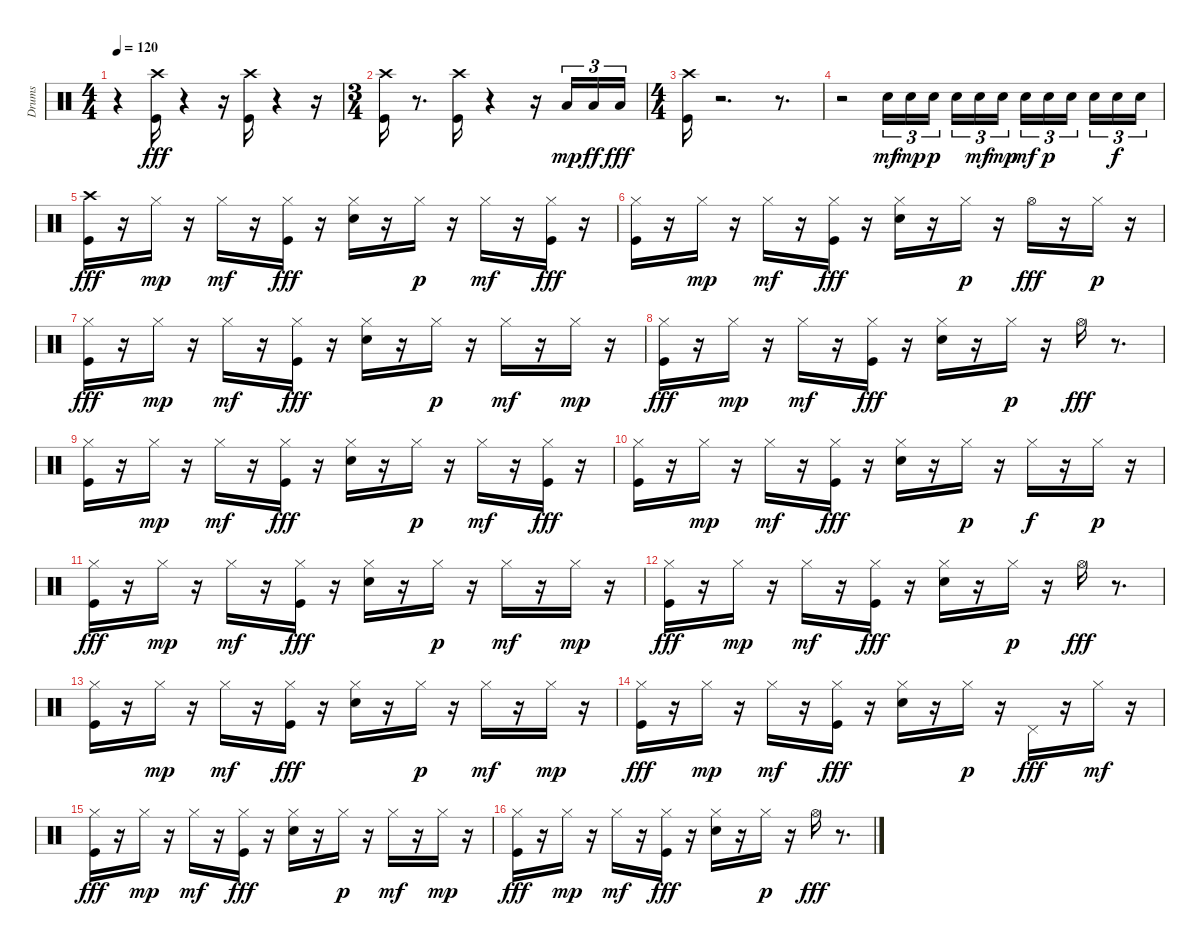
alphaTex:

\track ("Drums" "Drums") {instrument percussion}
\staff {score}
\articulation defaults
\ts (4 4)
\tempo 120
\clef neutral
\ks c
r.4{dy fff} ("Crash high (hit)" "Kick (hit)").16 r.4 r.16 ("Crash high (hit)" "Kick (hit)").16 r.4 r.16 |
\ts (3 4)
("Crash high (hit)" "Kick (hit)").16 r.8{d} ("Crash high (hit)" "Kick (hit)").16 r.4 r.16 "Low Tom (hit)".16{tu (3 2) dy mp} "Low Tom (hit)".16{tu (3 2) dy ff} "Low Tom (hit)".16{tu (3 2) dy fff} |
\ts (4 4)
("Crash high (hit)" "Kick (hit)").16 r.2{d} r.8{d} |
r.2 "Snare (hit) 2".16{tu (3 2) dy mf} "Snare (hit) 2".16{tu (3 2) dy mp} "Snare (hit) 2".16{tu (3 2) dy p beam splitsecondary} "Snare (hit) 2".16{tu (3 2)} "Snare (hit) 2".16{tu (3 2) dy mf} "Snare (hit) 2".16{tu (3 2) dy mp} "Snare (hit) 2".16{tu (3 2) dy mf} "Snare (hit) 2".16{tu (3 2) dy p} "Snare (hit) 2".16{tu (3 2) beam splitsecondary} "Snare (hit) 2".16{tu (3 2)} "Snare (hit) 2".16{tu (3 2) dy f} "Snare (hit) 2".16{tu (3 2)} |
("Kick (hit)" "Crash high (hit)").16{dy fff} r.16 "Hi-Hat (closed)".16{dy mp} r.16 "Hi-Hat (closed)".16{dy mf} r.16 ("Hi-Hat (closed)" "Kick (hit)").16{dy fff} r.16 ("Hi-Hat (closed)" "Snare (hit) 2").16 r.16 "Hi-Hat (closed)".16{dy p} r.16 "Hi-Hat (closed)".16{dy mf} r.16 ("Hi-Hat (closed)" "Kick (hit)").16{dy fff} r.16 |
("Hi-Hat (closed)" "Kick (hit)").16 r.16 "Hi-Hat (closed)".16{dy mp} r.16 "Hi-Hat (closed)".16{dy mf} r.16 ("Hi-Hat (closed)" "Kick (hit)").16{dy fff} r.16 ("Hi-Hat (closed)" "Snare (hit) 2").16 r.16 "Hi-Hat (closed)".16{dy p} r.16 "Hi-Hat (open)".16{dy fff} r.16 "Hi-Hat (closed)".16{dy p} r.16 |
("Hi-Hat (closed)" "Kick (hit)").16{dy fff} r.16 "Hi-Hat (closed)".16{dy mp} r.16 "Hi-Hat (closed)".16{dy mf} r.16 ("Hi-Hat (closed)" "Kick (hit)").16{dy fff} r.16 ("Hi-Hat (closed)" "Snare (hit) 2").16 r.16 "Hi-Hat (closed)".16{dy p} r.16 "Hi-Hat (closed)".16{dy mf} r.16 "Hi-Hat (closed)".16{dy mp} r.16 |
("Hi-Hat (closed)" "Kick (hit)").16{dy fff} r.16 "Hi-Hat (closed)".16{dy mp} r.16 "Hi-Hat (closed)".16{dy mf} r.16 ("Hi-Hat (closed)" "Kick (hit)").16{dy fff} r.16 ("Hi-Hat (closed)" "Snare (hit) 2").16 r.16 "Hi-Hat (closed)".16{dy p} r.16 "Hi-Hat (open)".16{dy fff} r.8{d} |
("Hi-Hat (closed)" "Kick (hit)").16 r.16 "Hi-Hat (closed)".16{dy mp} r.16 "Hi-Hat (closed)".16{dy mf} r.16 ("Hi-Hat (closed)" "Kick (hit)").16{dy fff} r.16 ("Hi-Hat (closed)" "Snare (hit) 2").16 r.16 "Hi-Hat (closed)".16{dy p} r.16 "Hi-Hat (closed)".16{dy mf} r.16 ("Hi-Hat (closed)" "Kick (hit)").16{dy fff} r.16 |
("Hi-Hat (closed)" "Kick (hit)").16 r.16 "Hi-Hat (closed)".16{dy mp} r.16 "Hi-Hat (closed)".16{dy mf} r.16 ("Hi-Hat (closed)" "Kick (hit)").16{dy fff} r.16 ("Hi-Hat (closed)" "Snare (hit) 2").16 r.16 "Hi-Hat (closed)".16{dy p} r.16 "Hi-Hat (closed)".16{dy f} r.16 "Hi-Hat (closed)".16{dy p} r.16 |
("Hi-Hat (closed)" "Kick (hit)").16{dy fff} r.16 "Hi-Hat (closed)".16{dy mp} r.16 "Hi-Hat (closed)".16{dy mf} r.16 ("Hi-Hat (closed)" "Kick (hit)").16{dy fff} r.16 ("Hi-Hat (closed)" "Snare (hit) 2").16 r.16 "Hi-Hat (closed)".16{dy p} r.16 "Hi-Hat (closed)".16{dy mf} r.16 "Hi-Hat (closed)".16{dy mp} r.16 |
("Hi-Hat (closed)" "Kick (hit)").16{dy fff} r.16 "Hi-Hat (closed)".16{dy mp} r.16 "Hi-Hat (closed)".16{dy mf} r.16 ("Hi-Hat (closed)" "Kick (hit)").16{dy fff} r.16 ("Hi-Hat (closed)" "Snare (hit) 2").16 r.16 "Hi-Hat (closed)".16{dy p} r.16 "Hi-Hat (open)".16{dy fff} r.8{d} |
("Hi-Hat (closed)" "Kick (hit)").16 r.16 "Hi-Hat (closed)".16{dy mp} r.16 "Hi-Hat (closed)".16{dy mf} r.16 ("Hi-Hat (closed)" "Kick (hit)").16{dy fff} r.16 ("Hi-Hat (closed)" "Snare (hit) 2").16 r.16 "Hi-Hat (closed)".16{dy p} r.16 "Hi-Hat (closed)".16{dy mf} r.16 "Hi-Hat (closed)".16{dy mp} r.16 |
("Hi-Hat (closed)" "Kick (hit)").16{dy fff} r.16 "Hi-Hat (closed)".16{dy mp} r.16 "Hi-Hat (closed)".16{dy mf} r.16 ("Hi-Hat (closed)" "Kick (hit)").16{dy fff} r.16 ("Hi-Hat (closed)" "Snare (hit) 2").16 r.16 "Hi-Hat (closed)".16{dy p} r.16 "Pedal Hi-Hat (hit)".16{dy fff} r.16 "Hi-Hat (closed)".16{dy mf} r.16 |
("Hi-Hat (closed)" "Kick (hit)").16{dy fff} r.16 "Hi-Hat (closed)".16{dy mp} r.16 "Hi-Hat (closed)".16{dy mf} r.16 ("Hi-Hat (closed)" "Kick (hit)").16{dy fff} r.16 ("Hi-Hat (closed)" "Snare (hit) 2").16 r.16 "Hi-Hat (closed)".16{dy p} r.16 "Hi-Hat (closed)".16{dy mf} r.16 "Hi-Hat (closed)".16{dy mp} r.16 |
("Hi-Hat (closed)" "Kick (hit)").16{dy fff} r.16 "Hi-Hat (closed)".16{dy mp} r.16 "Hi-Hat (closed)".16{dy mf} r.16 ("Hi-Hat (closed)" "Kick (hit)").16{dy fff} r.16 ("Hi-Hat (closed)" "Snare (hit) 2").16 r.16 "Hi-Hat (closed)".16{dy p} r.16 "Hi-Hat (open)".16{dy fff} r.8{d}
